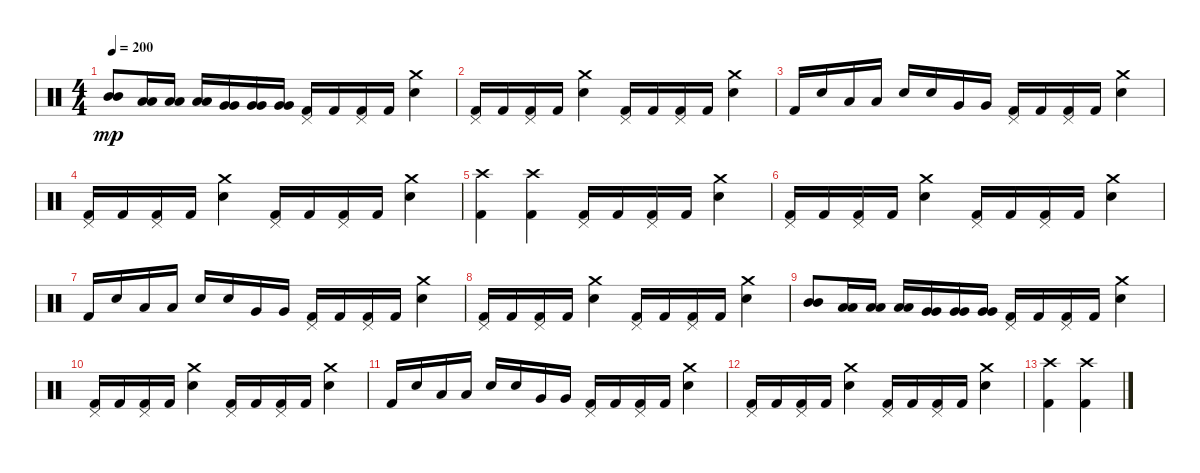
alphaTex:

\track "" {instrument percussion}
\staff {score}
\articulation defaults
\ts (4 4)
\tempo 200
\clef neutral
\ks c
("Mid Tom (hit)" "Mid Tom (hit)").8{dy mp} ("Low Tom (hit)" "Low Tom (hit)").16 ("Low Tom (hit)" "Low Tom (hit)").16 ("Low Tom (hit)" "Low Tom (hit)").16 ("Very Low Tom (hit)" "Very Low Tom (hit)").16 ("Very Low Tom (hit)" "Very Low Tom (hit)").16 ("Very Low Tom (hit)" "Very Low Tom (hit)").16 ("Kick (hit) 2" "Pedal Hi-Hat (hit)").16 "Kick (hit) 2".16 ("Kick (hit) 2" "Pedal Hi-Hat (hit)").16 "Kick (hit) 2".16 ("Electric Snare (hit)" "Crash medium (hit)").4 |
("Kick (hit) 2" "Pedal Hi-Hat (hit)").16 "Kick (hit) 2".16 ("Kick (hit) 2" "Pedal Hi-Hat (hit)").16 "Kick (hit) 2".16 ("Electric Snare (hit)" "Crash medium (hit)").4 ("Kick (hit) 2" "Pedal Hi-Hat (hit)").16 "Kick (hit) 2".16 ("Kick (hit) 2" "Pedal Hi-Hat (hit)").16 "Kick (hit) 2".16 ("Electric Snare (hit)" "Crash medium (hit)").4 |
"Kick (hit) 2".16 "Electric Snare (hit)".16 "Low Tom (hit)".16 "Low Tom (hit)".16 "Electric Snare (hit)".16 "Electric Snare (hit)".16 "Very Low Tom (hit)".16 "Very Low Tom (hit)".16 ("Kick (hit) 2" "Pedal Hi-Hat (hit)").16 "Kick (hit) 2".16 ("Kick (hit) 2" "Pedal Hi-Hat (hit)").16 "Kick (hit) 2".16 ("Electric Snare (hit)" "Crash medium (hit)").4 |
("Kick (hit) 2" "Pedal Hi-Hat (hit)").16 "Kick (hit) 2".16 ("Kick (hit) 2" "Pedal Hi-Hat (hit)").16 "Kick (hit) 2".16 ("Electric Snare (hit)" "Crash medium (hit)").4 ("Kick (hit) 2" "Pedal Hi-Hat (hit)").16 "Kick (hit) 2".16 ("Kick (hit) 2" "Pedal Hi-Hat (hit)").16 "Kick (hit) 2".16 ("Electric Snare (hit)" "Crash medium (hit)").4 |
("Kick (hit) 2" "Crash high (hit)").4 ("Kick (hit) 2" "Crash high (hit)").4 ("Kick (hit) 2" "Pedal Hi-Hat (hit)").16 "Kick (hit) 2".16 ("Kick (hit) 2" "Pedal Hi-Hat (hit)").16 "Kick (hit) 2".16 ("Electric Snare (hit)" "Crash medium (hit)").4 |
("Kick (hit) 2" "Pedal Hi-Hat (hit)").16 "Kick (hit) 2".16 ("Kick (hit) 2" "Pedal Hi-Hat (hit)").16 "Kick (hit) 2".16 ("Electric Snare (hit)" "Crash medium (hit)").4 ("Kick (hit) 2" "Pedal Hi-Hat (hit)").16 "Kick (hit) 2".16 ("Kick (hit) 2" "Pedal Hi-Hat (hit)").16 "Kick (hit) 2".16 ("Electric Snare (hit)" "Crash medium (hit)").4 |
"Kick (hit) 2".16 "Electric Snare (hit)".16 "Low Tom (hit)".16 "Low Tom (hit)".16 "Electric Snare (hit)".16 "Electric Snare (hit)".16 "Very Low Tom (hit)".16 "Very Low Tom (hit)".16 ("Kick (hit) 2" "Pedal Hi-Hat (hit)").16 "Kick (hit) 2".16 ("Kick (hit) 2" "Pedal Hi-Hat (hit)").16 "Kick (hit) 2".16 ("Electric Snare (hit)" "Crash medium (hit)").4 |
("Kick (hit) 2" "Pedal Hi-Hat (hit)").16 "Kick (hit) 2".16 ("Kick (hit) 2" "Pedal Hi-Hat (hit)").16 "Kick (hit) 2".16 ("Electric Snare (hit)" "Crash medium (hit)").4 ("Kick (hit) 2" "Pedal Hi-Hat (hit)").16 "Kick (hit) 2".16 ("Kick (hit) 2" "Pedal Hi-Hat (hit)").16 "Kick (hit) 2".16 ("Electric Snare (hit)" "Crash medium (hit)").4 |
("Mid Tom (hit)" "Mid Tom (hit)").8 ("Low Tom (hit)" "Low Tom (hit)").16 ("Low Tom (hit)" "Low Tom (hit)").16 ("Low Tom (hit)" "Low Tom (hit)").16 ("Very Low Tom (hit)" "Very Low Tom (hit)").16 ("Very Low Tom (hit)" "Very Low Tom (hit)").16 ("Very Low Tom (hit)" "Very Low Tom (hit)").16 ("Kick (hit) 2" "Pedal Hi-Hat (hit)").16 "Kick (hit) 2".16 ("Kick (hit) 2" "Pedal Hi-Hat (hit)").16 "Kick (hit) 2".16 ("Electric Snare (hit)" "Crash medium (hit)").4 |
("Kick (hit) 2" "Pedal Hi-Hat (hit)").16 "Kick (hit) 2".16 ("Kick (hit) 2" "Pedal Hi-Hat (hit)").16 "Kick (hit) 2".16 ("Electric Snare (hit)" "Crash medium (hit)").4 ("Kick (hit) 2" "Pedal Hi-Hat (hit)").16 "Kick (hit) 2".16 ("Kick (hit) 2" "Pedal Hi-Hat (hit)").16 "Kick (hit) 2".16 ("Electric Snare (hit)" "Crash medium (hit)").4 |
"Kick (hit) 2".16 "Electric Snare (hit)".16 "Low Tom (hit)".16 "Low Tom (hit)".16 "Electric Snare (hit)".16 "Electric Snare (hit)".16 "Very Low Tom (hit)".16 "Very Low Tom (hit)".16 ("Kick (hit) 2" "Pedal Hi-Hat (hit)").16 "Kick (hit) 2".16 ("Kick (hit) 2" "Pedal Hi-Hat (hit)").16 "Kick (hit) 2".16 ("Electric Snare (hit)" "Crash medium (hit)").4 |
("Kick (hit) 2" "Pedal Hi-Hat (hit)").16 "Kick (hit) 2".16 ("Kick (hit) 2" "Pedal Hi-Hat (hit)").16 "Kick (hit) 2".16 ("Electric Snare (hit)" "Crash medium (hit)").4 ("Kick (hit) 2" "Pedal Hi-Hat (hit)").16 "Kick (hit) 2".16 ("Kick (hit) 2" "Pedal Hi-Hat (hit)").16 "Kick (hit) 2".16 ("Electric Snare (hit)" "Crash medium (hit)").4 |
("Kick (hit) 2" "Crash high (hit)").4 ("Kick (hit) 2" "Crash high (hit)").4
